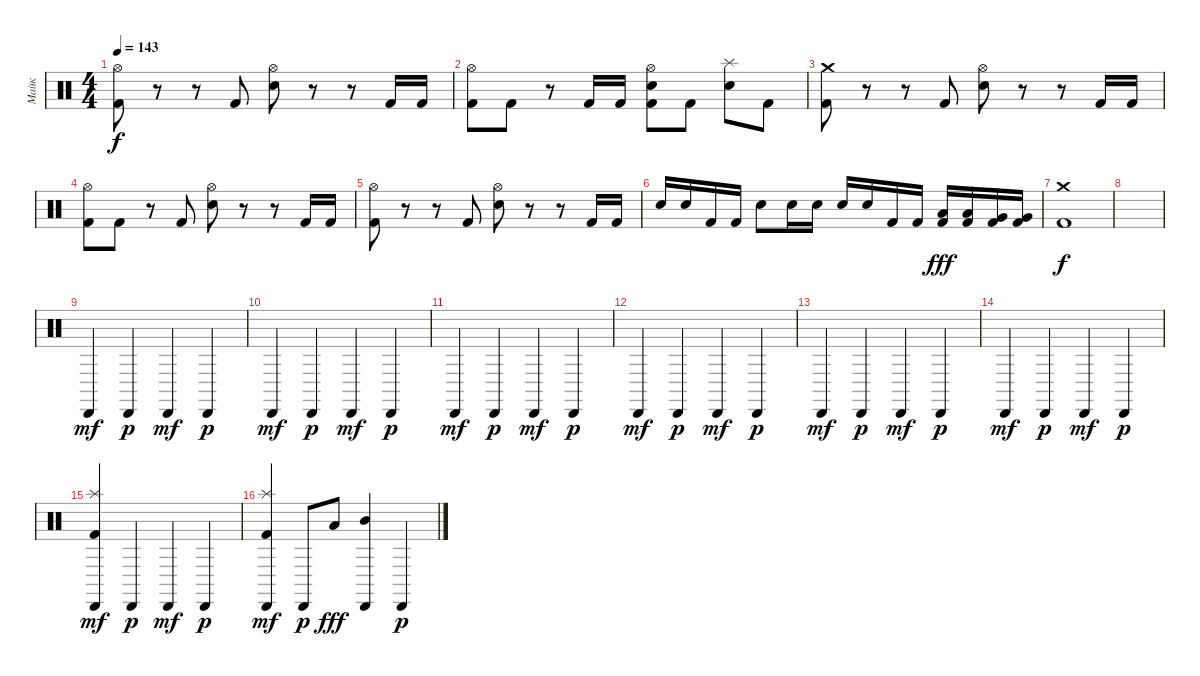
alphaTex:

\track ("Майк" "Майк") {instrument percussion}
\staff {score}
\articulation defaults
\ts (4 4)
\tempo 143
\clef neutral
\ks c
("Hi-Hat (open)" "Kick (hit) 2").8{dy f} r.8 r.8 "Kick (hit) 2".8 ("Hi-Hat (open)" "Electric Snare (hit)").8 r.8 r.8 "Kick (hit) 2".16 "Kick (hit) 2".16 |
("Hi-Hat (open)" "Kick (hit) 2").8 "Kick (hit) 2".8 r.8 "Kick (hit) 2".16 "Kick (hit) 2".16 ("Hi-Hat (open)" "Electric Snare (hit)" "Kick (hit) 2").8 "Kick (hit) 2".8 ("Splash (hit)" "Electric Snare (hit)").8 "Kick (hit) 2".8 |
("Crash medium (hit)" "Kick (hit) 2").8 r.8 r.8 "Kick (hit) 2".8 ("Hi-Hat (open)" "Electric Snare (hit)").8 r.8 r.8 "Kick (hit) 2".16 "Kick (hit) 2".16 |
("Hi-Hat (open)" "Kick (hit) 2").8 "Kick (hit) 2".8 r.8 "Kick (hit) 2".8 ("Hi-Hat (open)" "Electric Snare (hit)").8 r.8 r.8 "Kick (hit) 2".16 "Kick (hit) 2".16 |
("Hi-Hat (open)" "Kick (hit) 2").8 r.8 r.8 "Kick (hit) 2".8 ("Hi-Hat (open)" "Electric Snare (hit)").8 r.8 r.8 "Kick (hit) 2".16 "Kick (hit) 2".16 |
"Electric Snare (hit)".16 "Electric Snare (hit)".16 "Kick (hit) 2".16 "Kick (hit) 2".16 "Electric Snare (hit)".8 "Electric Snare (hit)".16 "Electric Snare (hit)".16 "Electric Snare (hit)".16 "Electric Snare (hit)".16 "Kick (hit) 2".16 "Kick (hit) 2".16 ("Low Tom (hit)" "Kick (hit) 2").16{dy fff} ("Low Tom (hit)" "Kick (hit) 2").16 ("Very Low Tom (hit)" "Kick (hit) 2").16 ("Very Low Tom (hit)" "Kick (hit) 2").16 |
("Crash medium (hit)" "Kick (hit) 2").1{dy f} |
|
"Cabasa (hit)".4{dy mf} "Cabasa (hit)".4{dy p} "Cabasa (hit)".4{dy mf} "Cabasa (hit)".4{dy p} |
"Cabasa (hit)".4{dy mf} "Cabasa (hit)".4{dy p} "Cabasa (hit)".4{dy mf} "Cabasa (hit)".4{dy p} |
"Cabasa (hit)".4{dy mf} "Cabasa (hit)".4{dy p} "Cabasa (hit)".4{dy mf} "Cabasa (hit)".4{dy p} |
"Cabasa (hit)".4{dy mf} "Cabasa (hit)".4{dy p} "Cabasa (hit)".4{dy mf} "Cabasa (hit)".4{dy p} |
"Cabasa (hit)".4{dy mf} "Cabasa (hit)".4{dy p} "Cabasa (hit)".4{dy mf} "Cabasa (hit)".4{dy p} |
"Cabasa (hit)".4{dy mf} "Cabasa (hit)".4{dy p} "Cabasa (hit)".4{dy mf} "Cabasa (hit)".4{dy p} |
("Splash (hit)" "Cabasa (hit)" "Kick (hit) 2").4{dy mf} "Cabasa (hit)".4{dy p} "Cabasa (hit)".4{dy mf} "Cabasa (hit)".4{dy p} |
("Splash (hit)" "Cabasa (hit)" "Kick (hit) 2").4{dy mf} "Cabasa (hit)".8{dy p} "Low Tom (hit)".8{dy fff} ("Mid Tom (hit)" "Cabasa (hit)").4 "Cabasa (hit)".4{dy p}
